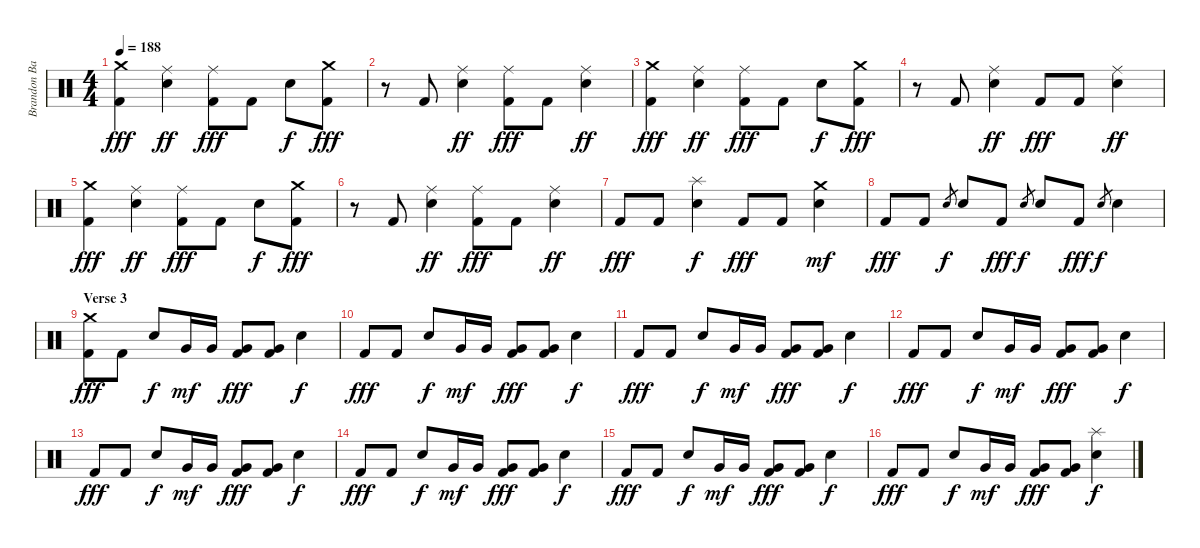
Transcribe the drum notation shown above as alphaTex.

\track ("Brandon Barnes (Drums)" "Brandon Ba") {instrument percussion}
\staff {score}
\articulation defaults
\ts (4 4)
\tempo 188
\clef neutral
\ks c
("Crash medium (hit)" "Kick (hit) 2").4{dy fff} ("Ride (middle)" "Electric Snare (hit)").4{dy ff} ("Ride (middle)" "Kick (hit) 2").8{dy fff} "Kick (hit) 2".8 "Electric Snare (hit)".8{dy f} ("Crash medium (hit)" "Kick (hit) 2").8{dy fff} |
r.8 "Kick (hit) 2".8 ("Ride (middle)" "Electric Snare (hit)").4{dy ff} ("Ride (middle)" "Kick (hit) 2").8{dy fff} "Kick (hit) 2".8 ("Ride (middle)" "Electric Snare (hit)").4{dy ff} |
("Crash medium (hit)" "Kick (hit) 2").4{dy fff} ("Ride (middle)" "Electric Snare (hit)").4{dy ff} ("Ride (middle)" "Kick (hit) 2").8{dy fff} "Kick (hit) 2".8 "Electric Snare (hit)".8{dy f} ("Crash medium (hit)" "Kick (hit) 2").8{dy fff} |
r.8 "Kick (hit) 2".8 ("Ride (middle)" "Electric Snare (hit)").4{dy ff} "Kick (hit) 2".8{dy fff} "Kick (hit) 2".8 ("Ride (middle)" "Electric Snare (hit)").4{dy ff} |
("Crash medium (hit)" "Kick (hit) 2").4{dy fff} ("Ride (middle)" "Electric Snare (hit)").4{dy ff} ("Ride (middle)" "Kick (hit) 2").8{dy fff} "Kick (hit) 2".8 "Electric Snare (hit)".8{dy f} ("Crash medium (hit)" "Kick (hit) 2").8{dy fff} |
r.8 "Kick (hit) 2".8 ("Ride (middle)" "Electric Snare (hit)").4{dy ff} ("Ride (middle)" "Kick (hit) 2").8{dy fff} "Kick (hit) 2".8 ("Ride (middle)" "Electric Snare (hit)").4{dy ff} |
"Kick (hit) 2".8{dy fff} "Kick (hit) 2".8 ("Splash (hit)" "Electric Snare (hit)").4{dy f} "Kick (hit) 2".8{dy fff} "Kick (hit) 2".8 ("Crash medium (hit)" "Electric Snare (hit)").4{dy mf} |
"Kick (hit) 2".8{dy fff} "Kick (hit) 2".8 "Electric Snare (hit)".8{gr dy f} "Electric Snare (hit)".8 "Kick (hit) 2".8{dy fff} "Electric Snare (hit)".8{gr dy f} "Electric Snare (hit)".8 "Kick (hit) 2".8{dy fff} "Electric Snare (hit)".8{gr dy f} "Electric Snare (hit)".4 |
\section ("" "Verse 3")
("Crash medium (hit)" "Kick (hit) 2").8{dy fff} "Kick (hit) 2".8 "Electric Snare (hit)".8{dy f} "Very Low Tom (hit)".16{dy mf} "Very Low Tom (hit)".16 ("Very Low Tom (hit)" "Kick (hit) 2").8{dy fff} ("Very Low Tom (hit)" "Kick (hit) 2").8 "Electric Snare (hit)".4{dy f} |
"Kick (hit) 2".8{dy fff} "Kick (hit) 2".8 "Electric Snare (hit)".8{dy f} "Very Low Tom (hit)".16{dy mf} "Very Low Tom (hit)".16 ("Very Low Tom (hit)" "Kick (hit) 2").8{dy fff} ("Very Low Tom (hit)" "Kick (hit) 2").8 "Electric Snare (hit)".4{dy f} |
"Kick (hit) 2".8{dy fff} "Kick (hit) 2".8 "Electric Snare (hit)".8{dy f} "Very Low Tom (hit)".16{dy mf} "Very Low Tom (hit)".16 ("Very Low Tom (hit)" "Kick (hit) 2").8{dy fff} ("Very Low Tom (hit)" "Kick (hit) 2").8 "Electric Snare (hit)".4{dy f} |
"Kick (hit) 2".8{dy fff} "Kick (hit) 2".8 "Electric Snare (hit)".8{dy f} "Very Low Tom (hit)".16{dy mf} "Very Low Tom (hit)".16 ("Very Low Tom (hit)" "Kick (hit) 2").8{dy fff} ("Very Low Tom (hit)" "Kick (hit) 2").8 "Electric Snare (hit)".4{dy f} |
"Kick (hit) 2".8{dy fff} "Kick (hit) 2".8 "Electric Snare (hit)".8{dy f} "Very Low Tom (hit)".16{dy mf} "Very Low Tom (hit)".16 ("Very Low Tom (hit)" "Kick (hit) 2").8{dy fff} ("Very Low Tom (hit)" "Kick (hit) 2").8 "Electric Snare (hit)".4{dy f} |
"Kick (hit) 2".8{dy fff} "Kick (hit) 2".8 "Electric Snare (hit)".8{dy f} "Very Low Tom (hit)".16{dy mf} "Very Low Tom (hit)".16 ("Very Low Tom (hit)" "Kick (hit) 2").8{dy fff} ("Very Low Tom (hit)" "Kick (hit) 2").8 "Electric Snare (hit)".4{dy f} |
"Kick (hit) 2".8{dy fff} "Kick (hit) 2".8 "Electric Snare (hit)".8{dy f} "Very Low Tom (hit)".16{dy mf} "Very Low Tom (hit)".16 ("Very Low Tom (hit)" "Kick (hit) 2").8{dy fff} ("Very Low Tom (hit)" "Kick (hit) 2").8 "Electric Snare (hit)".4{dy f} |
"Kick (hit) 2".8{dy fff} "Kick (hit) 2".8 "Electric Snare (hit)".8{dy f} "Very Low Tom (hit)".16{dy mf} "Very Low Tom (hit)".16 ("Very Low Tom (hit)" "Kick (hit) 2").8{dy fff} ("Very Low Tom (hit)" "Kick (hit) 2").8 ("Splash (hit)" "Electric Snare (hit)").4{dy f}
